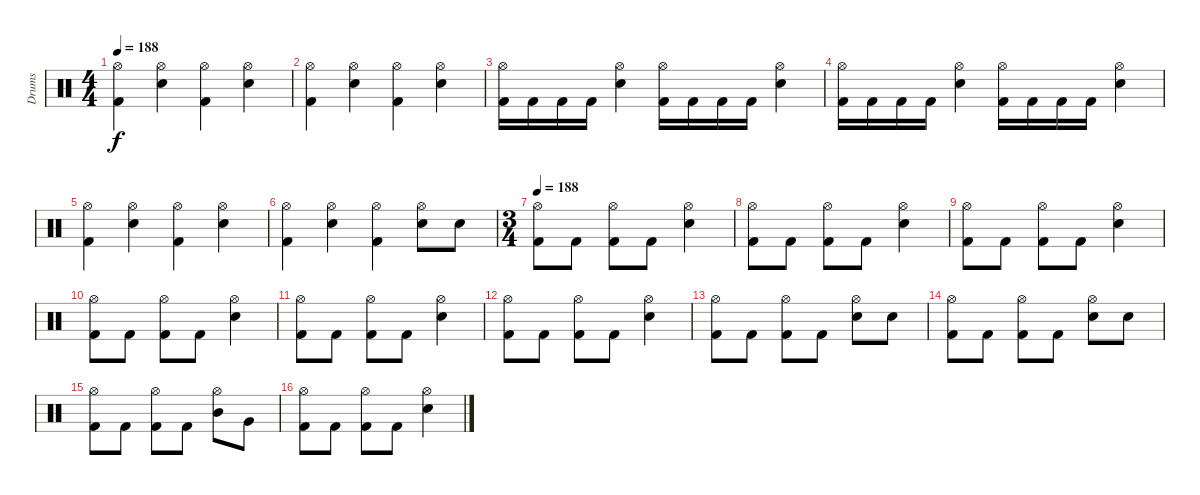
\track ("Drums" "Drums") {instrument percussion}
\staff {score}
\articulation defaults
\ts (4 4)
\tempo 188
\clef neutral
\ks c
("Hi-Hat (open)" "Kick (hit) 2").4{dy f} ("Electric Snare (hit)" "Hi-Hat (open)").4 ("Hi-Hat (open)" "Kick (hit) 2").4 ("Electric Snare (hit)" "Hi-Hat (open)").4 |
("Hi-Hat (open)" "Kick (hit) 2").4 ("Electric Snare (hit)" "Hi-Hat (open)").4 ("Hi-Hat (open)" "Kick (hit) 2").4 ("Electric Snare (hit)" "Hi-Hat (open)").4 |
("Hi-Hat (open)" "Kick (hit) 2").16 "Kick (hit) 2".16 "Kick (hit) 2".16 "Kick (hit) 2".16 ("Electric Snare (hit)" "Hi-Hat (open)").4 ("Hi-Hat (open)" "Kick (hit) 2").16 "Kick (hit) 2".16 "Kick (hit) 2".16 "Kick (hit) 2".16 ("Electric Snare (hit)" "Hi-Hat (open)").4 |
("Hi-Hat (open)" "Kick (hit) 2").16 "Kick (hit) 2".16 "Kick (hit) 2".16 "Kick (hit) 2".16 ("Electric Snare (hit)" "Hi-Hat (open)").4 ("Hi-Hat (open)" "Kick (hit) 2").16 "Kick (hit) 2".16 "Kick (hit) 2".16 "Kick (hit) 2".16 ("Electric Snare (hit)" "Hi-Hat (open)").4 |
("Hi-Hat (open)" "Kick (hit) 2").4 ("Electric Snare (hit)" "Hi-Hat (open)").4 ("Hi-Hat (open)" "Kick (hit) 2").4 ("Electric Snare (hit)" "Hi-Hat (open)").4 |
("Hi-Hat (open)" "Kick (hit) 2").4 ("Electric Snare (hit)" "Hi-Hat (open)").4 ("Hi-Hat (open)" "Kick (hit) 2").4 ("Electric Snare (hit)" "Hi-Hat (open)").8 "Electric Snare (hit)".8 |
\ts (3 4)
\tempo 188
("Hi-Hat (open)" "Kick (hit) 2").8 "Kick (hit) 2".8 ("Hi-Hat (open)" "Kick (hit) 2").8 "Kick (hit) 2".8 ("Electric Snare (hit)" "Hi-Hat (open)").4 |
("Hi-Hat (open)" "Kick (hit) 2").8 "Kick (hit) 2".8 ("Hi-Hat (open)" "Kick (hit) 2").8 "Kick (hit) 2".8 ("Electric Snare (hit)" "Hi-Hat (open)").4 |
("Hi-Hat (open)" "Kick (hit) 2").8 "Kick (hit) 2".8 ("Hi-Hat (open)" "Kick (hit) 2").8 "Kick (hit) 2".8 ("Electric Snare (hit)" "Hi-Hat (open)").4 |
("Hi-Hat (open)" "Kick (hit) 2").8 "Kick (hit) 2".8 ("Hi-Hat (open)" "Kick (hit) 2").8 "Kick (hit) 2".8 ("Electric Snare (hit)" "Hi-Hat (open)").4 |
("Hi-Hat (open)" "Kick (hit) 2").8 "Kick (hit) 2".8 ("Hi-Hat (open)" "Kick (hit) 2").8 "Kick (hit) 2".8 ("Electric Snare (hit)" "Hi-Hat (open)").4 |
("Hi-Hat (open)" "Kick (hit) 2").8 "Kick (hit) 2".8 ("Hi-Hat (open)" "Kick (hit) 2").8 "Kick (hit) 2".8 ("Electric Snare (hit)" "Hi-Hat (open)").4 |
("Hi-Hat (open)" "Kick (hit) 2").8 "Kick (hit) 2".8 ("Hi-Hat (open)" "Kick (hit) 2").8 "Kick (hit) 2".8 ("Electric Snare (hit)" "Hi-Hat (open)").8 "Electric Snare (hit)".8 |
("Hi-Hat (open)" "Kick (hit) 2").8 "Kick (hit) 2".8 ("Hi-Hat (open)" "Kick (hit) 2").8 "Kick (hit) 2".8 ("Electric Snare (hit)" "Hi-Hat (open)").8 "Electric Snare (hit)".8 |
("Hi-Hat (open)" "Kick (hit) 2").8 "Kick (hit) 2".8 ("Hi-Hat (open)" "Kick (hit) 2").8 "Kick (hit) 2".8 ("Hi-Hat (open)" "Mid Tom (hit)").8 "Very Low Tom (hit)".8 |
("Hi-Hat (open)" "Kick (hit) 2").8 "Kick (hit) 2".8 ("Hi-Hat (open)" "Kick (hit) 2").8 "Kick (hit) 2".8 ("Electric Snare (hit)" "Hi-Hat (open)").4
